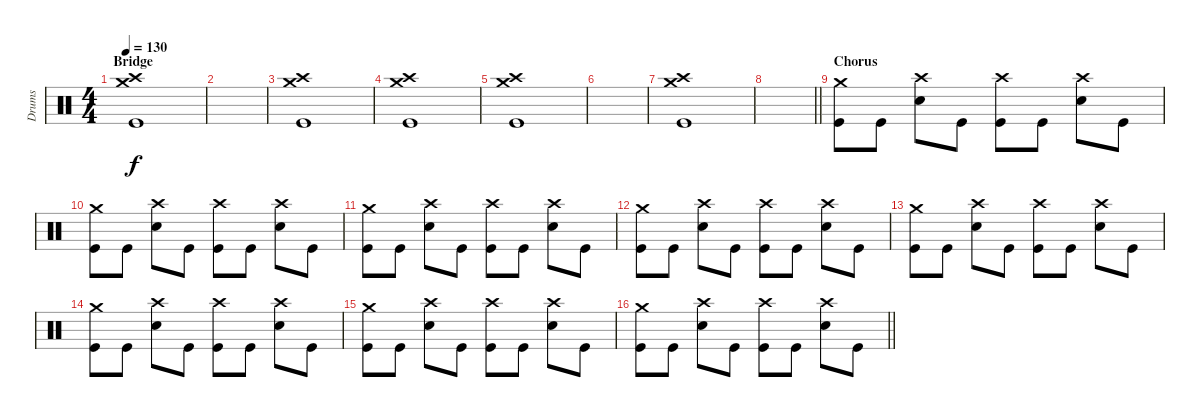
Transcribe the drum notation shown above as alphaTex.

\track ("Drums" "Drums") {instrument percussion}
\staff {score}
\articulation defaults
\ts (4 4)
\section ("" "Bridge")
\tempo 130
\clef neutral
\ks c
("Kick (hit)" "Crash high (hit)" "Crash medium (hit)").1{dy f} |
|
("Kick (hit)" "Crash high (hit)" "Crash medium (hit)").1 |
("Kick (hit)" "Crash high (hit)" "Crash medium (hit)").1 |
("Kick (hit)" "Crash high (hit)" "Crash medium (hit)").1 |
|
("Kick (hit)" "Crash high (hit)" "Crash medium (hit)").1 |
\barLineRight lightlight
|
\section ("" "Chorus")
("Kick (hit)" "Crash medium (hit)").8 "Kick (hit)".8 ("Snare (hit) 2" "Crash high (hit)").8 "Kick (hit)".8 ("Kick (hit)" "Crash high (hit)").8 "Kick (hit)".8 ("Snare (hit) 2" "Crash high (hit)").8 "Kick (hit)".8 |
("Kick (hit)" "Crash medium (hit)").8 "Kick (hit)".8 ("Snare (hit) 2" "Crash high (hit)").8 "Kick (hit)".8 ("Kick (hit)" "Crash high (hit)").8 "Kick (hit)".8 ("Snare (hit) 2" "Crash high (hit)").8 "Kick (hit)".8 |
("Kick (hit)" "Crash medium (hit)").8 "Kick (hit)".8 ("Snare (hit) 2" "Crash high (hit)").8 "Kick (hit)".8 ("Kick (hit)" "Crash high (hit)").8 "Kick (hit)".8 ("Snare (hit) 2" "Crash high (hit)").8 "Kick (hit)".8 |
("Kick (hit)" "Crash medium (hit)").8 "Kick (hit)".8 ("Snare (hit) 2" "Crash high (hit)").8 "Kick (hit)".8 ("Kick (hit)" "Crash high (hit)").8 "Kick (hit)".8 ("Snare (hit) 2" "Crash high (hit)").8 "Kick (hit)".8 |
("Kick (hit)" "Crash medium (hit)").8 "Kick (hit)".8 ("Snare (hit) 2" "Crash high (hit)").8 "Kick (hit)".8 ("Kick (hit)" "Crash high (hit)").8 "Kick (hit)".8 ("Snare (hit) 2" "Crash high (hit)").8 "Kick (hit)".8 |
("Kick (hit)" "Crash medium (hit)").8 "Kick (hit)".8 ("Snare (hit) 2" "Crash high (hit)").8 "Kick (hit)".8 ("Kick (hit)" "Crash high (hit)").8 "Kick (hit)".8 ("Snare (hit) 2" "Crash high (hit)").8 "Kick (hit)".8 |
("Kick (hit)" "Crash medium (hit)").8 "Kick (hit)".8 ("Snare (hit) 2" "Crash high (hit)").8 "Kick (hit)".8 ("Kick (hit)" "Crash high (hit)").8 "Kick (hit)".8 ("Snare (hit) 2" "Crash high (hit)").8 "Kick (hit)".8 |
\barLineRight lightlight
("Kick (hit)" "Crash medium (hit)").8 "Kick (hit)".8 ("Snare (hit) 2" "Crash high (hit)").8 "Kick (hit)".8 ("Kick (hit)" "Crash high (hit)").8 "Kick (hit)".8 ("Snare (hit) 2" "Crash high (hit)").8 "Kick (hit)".8
